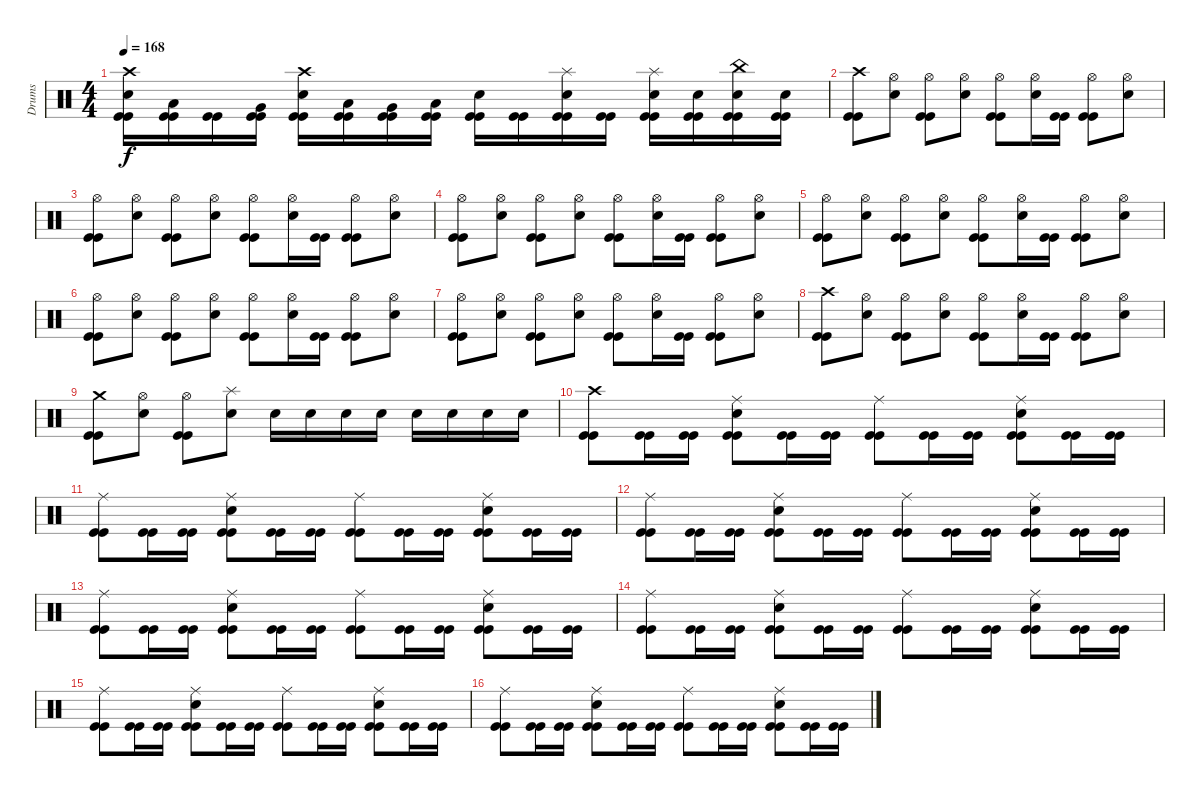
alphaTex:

\track ("Drums" "Drums") {instrument percussion}
\staff {score}
\articulation defaults
\ts (4 4)
\tempo 168
\clef neutral
\ks c
("Crash high (hit)" "Electric Snare (hit)" "Kick (hit)" "Kick (hit)").16{dy f} ("Low Tom (hit)" "Kick (hit)" "Kick (hit)").16 ("Kick (hit)" "Kick (hit)").16 ("Very Low Tom (hit)" "Kick (hit)" "Kick (hit)").16 ("Crash high (hit)" "Electric Snare (hit)" "Kick (hit)" "Kick (hit)").16 ("Low Tom (hit)" "Kick (hit)" "Kick (hit)").16 ("Very Low Tom (hit)" "Kick (hit)" "Kick (hit)").16 ("Low Floor Tom (hit)" "Kick (hit)" "Kick (hit)").16 ("Electric Snare (hit)" "Kick (hit)" "Kick (hit)").16 ("Kick (hit)" "Kick (hit)").16 ("Splash (hit)" "Electric Snare (hit)" "Kick (hit)" "Kick (hit)").16 ("Kick (hit)" "Kick (hit)").16 ("Splash (hit)" "Electric Snare (hit)" "Kick (hit)" "Kick (hit)").16 ("Electric Snare (hit)" "Kick (hit)" "Kick (hit)").16 ("China (hit)" "Electric Snare (hit)" "Kick (hit)" "Kick (hit)").16 ("Electric Snare (hit)" "Kick (hit)" "Kick (hit)").16 |
("Crash high (hit)" "Kick (hit)" "Kick (hit)").8 ("Hi-Hat (open)" "Electric Snare (hit)").8 ("Hi-Hat (open)" "Kick (hit)" "Kick (hit)").8 ("Hi-Hat (open)" "Electric Snare (hit)").8 ("Hi-Hat (open)" "Kick (hit)" "Kick (hit)").8 ("Hi-Hat (open)" "Electric Snare (hit)").16 ("Kick (hit)" "Kick (hit)").16 ("Hi-Hat (open)" "Kick (hit)" "Kick (hit)").8 ("Hi-Hat (open)" "Electric Snare (hit)").8 |
("Hi-Hat (open)" "Kick (hit)" "Kick (hit)").8 ("Hi-Hat (open)" "Electric Snare (hit)").8 ("Hi-Hat (open)" "Kick (hit)" "Kick (hit)").8 ("Hi-Hat (open)" "Electric Snare (hit)").8 ("Hi-Hat (open)" "Kick (hit)" "Kick (hit)").8 ("Hi-Hat (open)" "Electric Snare (hit)").16 ("Kick (hit)" "Kick (hit)").16 ("Hi-Hat (open)" "Kick (hit)" "Kick (hit)").8 ("Hi-Hat (open)" "Electric Snare (hit)").8 |
("Hi-Hat (open)" "Kick (hit)" "Kick (hit)").8 ("Hi-Hat (open)" "Electric Snare (hit)").8 ("Hi-Hat (open)" "Kick (hit)" "Kick (hit)").8 ("Hi-Hat (open)" "Electric Snare (hit)").8 ("Hi-Hat (open)" "Kick (hit)" "Kick (hit)").8 ("Hi-Hat (open)" "Electric Snare (hit)").16 ("Kick (hit)" "Kick (hit)").16 ("Hi-Hat (open)" "Kick (hit)" "Kick (hit)").8 ("Hi-Hat (open)" "Electric Snare (hit)").8 |
("Hi-Hat (open)" "Kick (hit)" "Kick (hit)").8 ("Hi-Hat (open)" "Electric Snare (hit)").8 ("Hi-Hat (open)" "Kick (hit)" "Kick (hit)").8 ("Hi-Hat (open)" "Electric Snare (hit)").8 ("Hi-Hat (open)" "Kick (hit)" "Kick (hit)").8 ("Hi-Hat (open)" "Electric Snare (hit)").16 ("Kick (hit)" "Kick (hit)").16 ("Hi-Hat (open)" "Kick (hit)" "Kick (hit)").8 ("Hi-Hat (open)" "Electric Snare (hit)").8 |
("Hi-Hat (open)" "Kick (hit)" "Kick (hit)").8 ("Hi-Hat (open)" "Electric Snare (hit)").8 ("Hi-Hat (open)" "Kick (hit)" "Kick (hit)").8 ("Hi-Hat (open)" "Electric Snare (hit)").8 ("Hi-Hat (open)" "Kick (hit)" "Kick (hit)").8 ("Hi-Hat (open)" "Electric Snare (hit)").16 ("Kick (hit)" "Kick (hit)").16 ("Hi-Hat (open)" "Kick (hit)" "Kick (hit)").8 ("Hi-Hat (open)" "Electric Snare (hit)").8 |
("Hi-Hat (open)" "Kick (hit)" "Kick (hit)").8 ("Hi-Hat (open)" "Electric Snare (hit)").8 ("Hi-Hat (open)" "Kick (hit)" "Kick (hit)").8 ("Hi-Hat (open)" "Electric Snare (hit)").8 ("Hi-Hat (open)" "Kick (hit)" "Kick (hit)").8 ("Hi-Hat (open)" "Electric Snare (hit)").16 ("Kick (hit)" "Kick (hit)").16 ("Hi-Hat (open)" "Kick (hit)" "Kick (hit)").8 ("Hi-Hat (open)" "Electric Snare (hit)").8 |
("Crash high (hit)" "Kick (hit)" "Kick (hit)").8 ("Hi-Hat (open)" "Electric Snare (hit)").8 ("Hi-Hat (open)" "Kick (hit)" "Kick (hit)").8 ("Hi-Hat (open)" "Electric Snare (hit)").8 ("Hi-Hat (open)" "Kick (hit)" "Kick (hit)").8 ("Hi-Hat (open)" "Electric Snare (hit)").16 ("Kick (hit)" "Kick (hit)").16 ("Hi-Hat (open)" "Kick (hit)" "Kick (hit)").8 ("Hi-Hat (open)" "Electric Snare (hit)").8 |
("Crash medium (hit)" "Kick (hit)" "Kick (hit)").8 ("Hi-Hat (open)" "Electric Snare (hit)").8 ("Hi-Hat (open)" "Kick (hit)" "Kick (hit)").8 ("Splash (hit)" "Electric Snare (hit)").8 "Electric Snare (hit)".16 "Electric Snare (hit)".16 "Electric Snare (hit)".16 "Electric Snare (hit)".16 "Electric Snare (hit)".16 "Electric Snare (hit)".16 "Electric Snare (hit)".16 "Electric Snare (hit)".16 |
("Crash high (hit)" "Kick (hit)" "Kick (hit)").8 ("Kick (hit)" "Kick (hit)").16 ("Kick (hit)" "Kick (hit)").16 ("Ride (middle)" "Electric Snare (hit)" "Kick (hit)" "Kick (hit)").8 ("Kick (hit)" "Kick (hit)").16 ("Kick (hit)" "Kick (hit)").16 ("Ride (middle)" "Kick (hit)" "Kick (hit)").8 ("Kick (hit)" "Kick (hit)").16 ("Kick (hit)" "Kick (hit)").16 ("Ride (middle)" "Electric Snare (hit)" "Kick (hit)" "Kick (hit)").8 ("Kick (hit)" "Kick (hit)").16 ("Kick (hit)" "Kick (hit)").16 |
("Ride (middle)" "Kick (hit)" "Kick (hit)").8 ("Kick (hit)" "Kick (hit)").16 ("Kick (hit)" "Kick (hit)").16 ("Ride (middle)" "Electric Snare (hit)" "Kick (hit)" "Kick (hit)").8 ("Kick (hit)" "Kick (hit)").16 ("Kick (hit)" "Kick (hit)").16 ("Ride (middle)" "Kick (hit)" "Kick (hit)").8 ("Kick (hit)" "Kick (hit)").16 ("Kick (hit)" "Kick (hit)").16 ("Ride (middle)" "Electric Snare (hit)" "Kick (hit)" "Kick (hit)").8 ("Kick (hit)" "Kick (hit)").16 ("Kick (hit)" "Kick (hit)").16 |
("Ride (middle)" "Kick (hit)" "Kick (hit)").8 ("Kick (hit)" "Kick (hit)").16 ("Kick (hit)" "Kick (hit)").16 ("Ride (middle)" "Electric Snare (hit)" "Kick (hit)" "Kick (hit)").8 ("Kick (hit)" "Kick (hit)").16 ("Kick (hit)" "Kick (hit)").16 ("Ride (middle)" "Kick (hit)" "Kick (hit)").8 ("Kick (hit)" "Kick (hit)").16 ("Kick (hit)" "Kick (hit)").16 ("Ride (middle)" "Electric Snare (hit)" "Kick (hit)" "Kick (hit)").8 ("Kick (hit)" "Kick (hit)").16 ("Kick (hit)" "Kick (hit)").16 |
("Ride (middle)" "Kick (hit)" "Kick (hit)").8 ("Kick (hit)" "Kick (hit)").16 ("Kick (hit)" "Kick (hit)").16 ("Ride (middle)" "Electric Snare (hit)" "Kick (hit)" "Kick (hit)").8 ("Kick (hit)" "Kick (hit)").16 ("Kick (hit)" "Kick (hit)").16 ("Ride (middle)" "Kick (hit)" "Kick (hit)").8 ("Kick (hit)" "Kick (hit)").16 ("Kick (hit)" "Kick (hit)").16 ("Ride (middle)" "Electric Snare (hit)" "Kick (hit)" "Kick (hit)").8 ("Kick (hit)" "Kick (hit)").16 ("Kick (hit)" "Kick (hit)").16 |
("Ride (middle)" "Kick (hit)" "Kick (hit)").8 ("Kick (hit)" "Kick (hit)").16 ("Kick (hit)" "Kick (hit)").16 ("Ride (middle)" "Electric Snare (hit)" "Kick (hit)" "Kick (hit)").8 ("Kick (hit)" "Kick (hit)").16 ("Kick (hit)" "Kick (hit)").16 ("Ride (middle)" "Kick (hit)" "Kick (hit)").8 ("Kick (hit)" "Kick (hit)").16 ("Kick (hit)" "Kick (hit)").16 ("Ride (middle)" "Electric Snare (hit)" "Kick (hit)" "Kick (hit)").8 ("Kick (hit)" "Kick (hit)").16 ("Kick (hit)" "Kick (hit)").16 |
("Ride (middle)" "Kick (hit)" "Kick (hit)").8 ("Kick (hit)" "Kick (hit)").16 ("Kick (hit)" "Kick (hit)").16 ("Ride (middle)" "Electric Snare (hit)" "Kick (hit)" "Kick (hit)").8 ("Kick (hit)" "Kick (hit)").16 ("Kick (hit)" "Kick (hit)").16 ("Ride (middle)" "Kick (hit)" "Kick (hit)").8 ("Kick (hit)" "Kick (hit)").16 ("Kick (hit)" "Kick (hit)").16 ("Ride (middle)" "Electric Snare (hit)" "Kick (hit)" "Kick (hit)").8 ("Kick (hit)" "Kick (hit)").16 ("Kick (hit)" "Kick (hit)").16 |
("Ride (middle)" "Kick (hit)" "Kick (hit)").8 ("Kick (hit)" "Kick (hit)").16 ("Kick (hit)" "Kick (hit)").16 ("Ride (middle)" "Electric Snare (hit)" "Kick (hit)" "Kick (hit)").8 ("Kick (hit)" "Kick (hit)").16 ("Kick (hit)" "Kick (hit)").16 ("Ride (middle)" "Kick (hit)" "Kick (hit)").8 ("Kick (hit)" "Kick (hit)").16 ("Kick (hit)" "Kick (hit)").16 ("Ride (middle)" "Electric Snare (hit)" "Kick (hit)" "Kick (hit)").8 ("Kick (hit)" "Kick (hit)").16 ("Kick (hit)" "Kick (hit)").16
